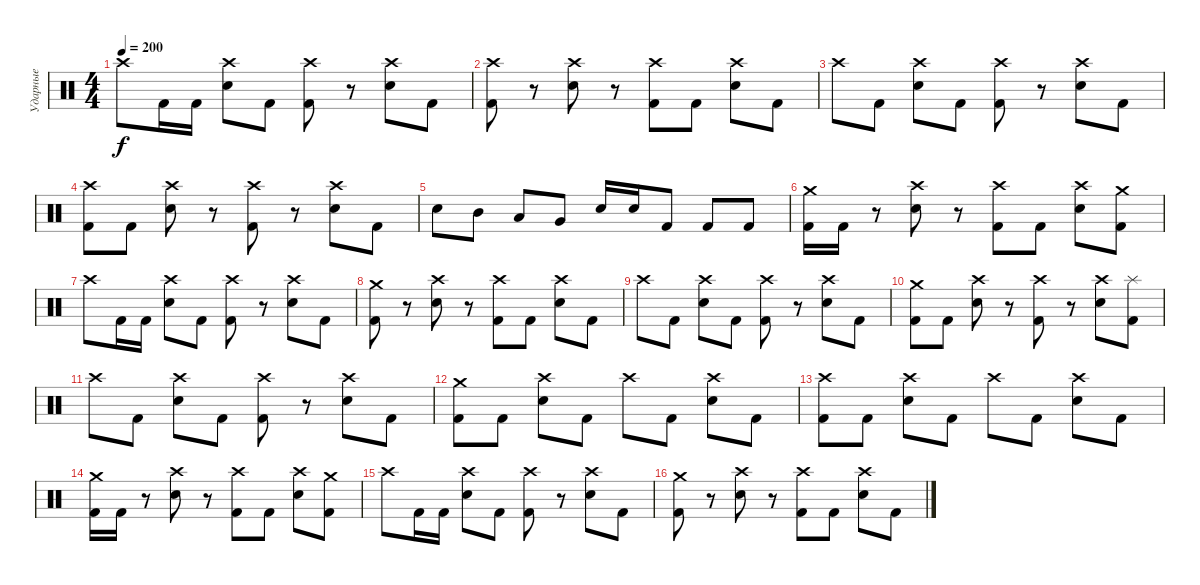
\track ("Ударные" "Ударные") {instrument percussion}
\staff {score}
\articulation defaults
\ts (4 4)
\tempo 200
\clef neutral
\ks c "Crash high (hit)".8{dy f} "Kick (hit) 2".16 "Kick (hit) 2".16
("Crash high (hit)" "Snare (hit) 2").8 "Kick (hit) 2".8 ("Crash high (hit)" "Kick (hit) 2").8 r.8 ("Crash high (hit)" "Snare (hit) 2").8 "Kick (hit) 2".8 |
("Crash high (hit)" "Kick (hit) 2").8 r.8 ("Crash high (hit)" "Snare (hit) 2").8 r.8 ("Crash high (hit)" "Kick (hit) 2").8 "Kick (hit) 2".8 ("Crash high (hit)" "Snare (hit) 2").8 "Kick (hit) 2".8 |
"Crash high (hit)".8 "Kick (hit) 2".8 ("Crash high (hit)" "Snare (hit) 2").8 "Kick (hit) 2".8 ("Crash high (hit)" "Kick (hit) 2").8 r.8 ("Crash high (hit)" "Snare (hit) 2").8 "Kick (hit) 2".8 |
("Crash high (hit)" "Kick (hit) 2").8 "Kick (hit) 2".8 ("Crash high (hit)" "Snare (hit) 2").8 r.8 ("Crash high (hit)" "Kick (hit) 2").8 r.8 ("Crash high (hit)" "Snare (hit) 2").8 "Kick (hit) 2".8 |
"Snare (hit) 2".8 "Mid Tom (hit)".8 "Low Tom (hit)".8 "Very Low Tom (hit)".8 "Snare (hit) 2".16 "Snare (hit) 2".16 "Kick (hit) 2".8 "Kick (hit) 2".8 "Kick (hit) 2".8 |
("Crash medium (hit)" "Kick (hit) 2").16 "Kick (hit) 2".16 r.8 ("Crash high (hit)" "Snare (hit) 2").8 r.8 ("Crash high (hit)" "Kick (hit) 2").8 "Kick (hit) 2".8 ("Crash high (hit)" "Snare (hit) 2").8 ("Crash medium (hit)" "Kick (hit) 2").8 |
"Crash high (hit)".8 "Kick (hit) 2".16 "Kick (hit) 2".16 ("Crash high (hit)" "Snare (hit) 2").8 "Kick (hit) 2".8 ("Crash high (hit)" "Kick (hit) 2").8 r.8 ("Crash high (hit)" "Snare (hit) 2").8 "Kick (hit) 2".8 |
("Crash medium (hit)" "Kick (hit) 2").8 r.8 ("Crash high (hit)" "Snare (hit) 2").8 r.8 ("Crash high (hit)" "Kick (hit) 2").8 "Kick (hit) 2".8 ("Crash high (hit)" "Snare (hit) 2").8 "Kick (hit) 2".8 |
"Crash high (hit)".8 "Kick (hit) 2".8 ("Crash high (hit)" "Snare (hit) 2").8 "Kick (hit) 2".8 ("Crash high (hit)" "Kick (hit) 2").8 r.8 ("Crash high (hit)" "Snare (hit) 2").8 "Kick (hit) 2".8 |
("Crash medium (hit)" "Kick (hit) 2").8 "Kick (hit) 2".8 ("Crash high (hit)" "Snare (hit) 2").8 r.8 ("Crash high (hit)" "Kick (hit) 2").8 r.8 ("Crash high (hit)" "Snare (hit) 2").8 ("Splash (hit)" "Kick (hit) 2").8 |
"Crash high (hit)".8 "Kick (hit) 2".8 ("Crash high (hit)" "Snare (hit) 2").8 "Kick (hit) 2".8 ("Crash high (hit)" "Kick (hit) 2").8 r.8 ("Crash high (hit)" "Snare (hit) 2").8 "Kick (hit) 2".8 |
("Crash medium (hit)" "Kick (hit) 2").8 "Kick (hit) 2".8 ("Crash high (hit)" "Snare (hit) 2").8 "Kick (hit) 2".8 "Crash high (hit)".8 "Kick (hit) 2".8 ("Crash high (hit)" "Snare (hit) 2").8 "Kick (hit) 2".8 |
("Crash high (hit)" "Kick (hit) 2").8 "Kick (hit) 2".8 ("Crash high (hit)" "Snare (hit) 2").8 "Kick (hit) 2".8 "Crash high (hit)".8 "Kick (hit) 2".8 ("Crash high (hit)" "Snare (hit) 2").8 "Kick (hit) 2".8 |
("Crash medium (hit)" "Kick (hit) 2").16 "Kick (hit) 2".16 r.8 ("Crash high (hit)" "Snare (hit) 2").8 r.8 ("Crash high (hit)" "Kick (hit) 2").8 "Kick (hit) 2".8 ("Crash high (hit)" "Snare (hit) 2").8 ("Crash medium (hit)" "Kick (hit) 2").8 |
"Crash high (hit)".8 "Kick (hit) 2".16 "Kick (hit) 2".16 ("Crash high (hit)" "Snare (hit) 2").8 "Kick (hit) 2".8 ("Crash high (hit)" "Kick (hit) 2").8 r.8 ("Crash high (hit)" "Snare (hit) 2").8 "Kick (hit) 2".8 |
("Crash medium (hit)" "Kick (hit) 2").8 r.8 ("Crash high (hit)" "Snare (hit) 2").8 r.8 ("Crash high (hit)" "Kick (hit) 2").8 "Kick (hit) 2".8 ("Crash high (hit)" "Snare (hit) 2").8 "Kick (hit) 2".8
